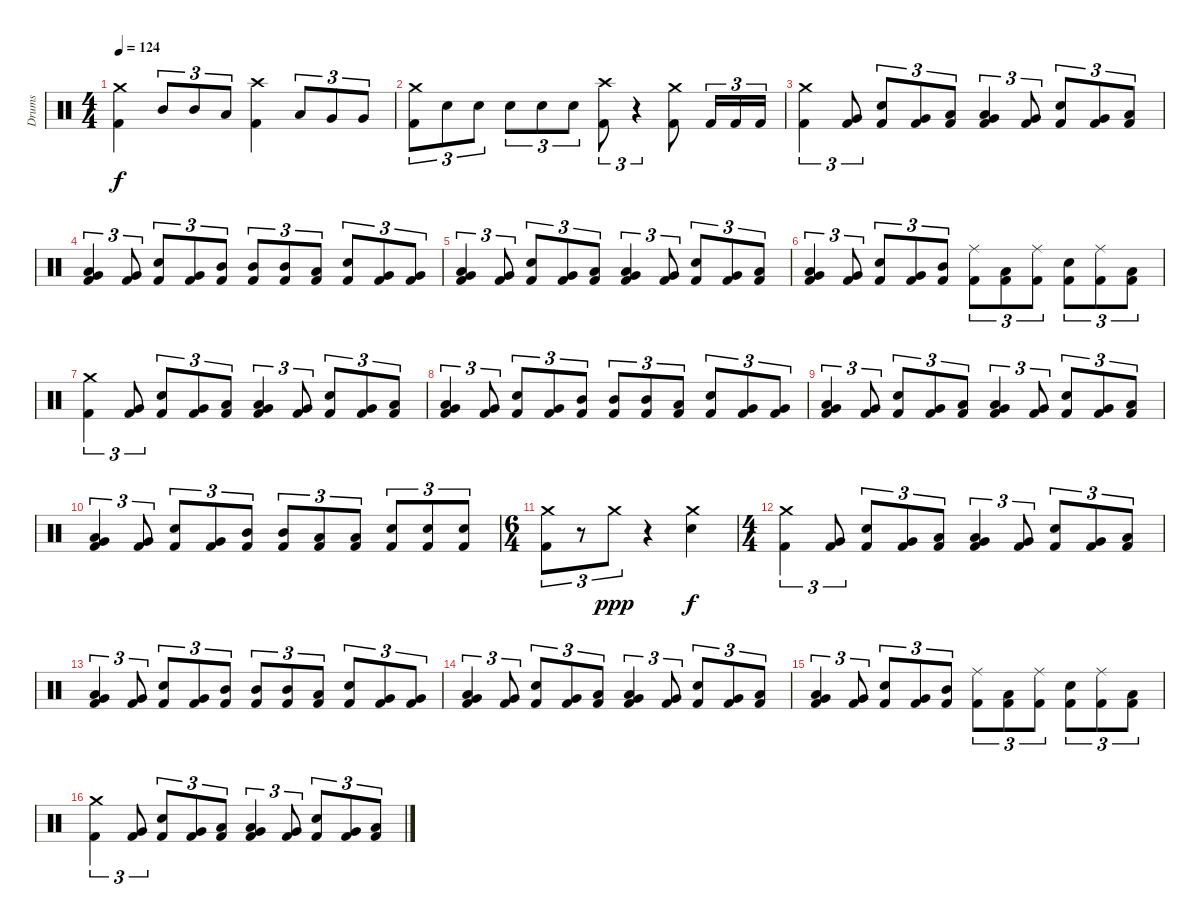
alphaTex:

\track ("Drums" "Drums") {instrument percussion}
\staff {score}
\articulation defaults
\ts (4 4)
\tempo 124
\clef neutral
\ks c
("Crash medium (hit)" "Kick (hit) 2").4{dy f} "Mid Tom (hit)".8{tu (3 2)} "Mid Tom (hit)".8{tu (3 2)} "Low Tom (hit)".8{tu (3 2)} ("Crash high (hit)" "Kick (hit) 2").4 "Low Tom (hit)".8{tu (3 2)} "Very Low Tom (hit)".8{tu (3 2)} "Very Low Tom (hit)".8{tu (3 2)} |
("Crash medium (hit)" "Kick (hit) 2").8{tu (3 2)} "Snare (hit) 2".8{tu (3 2)} "Snare (hit) 2".8{tu (3 2)} "Snare (hit) 2".8{tu (3 2)} "Snare (hit) 2".8{tu (3 2)} "Snare (hit) 2".8{tu (3 2)} ("Crash high (hit)" "Kick (hit) 2").8{tu (3 2)} r.4{tu (3 2)} ("Crash medium (hit)" "Kick (hit) 2").8 "Kick (hit) 2".16{tu (3 2)} "Kick (hit) 2".16{tu (3 2)} "Kick (hit) 2".16{tu (3 2)} |
("Crash medium (hit)" "Kick (hit) 2").4{tu (3 2)} ("Very Low Tom (hit)" "Kick (hit) 2").8{tu (3 2)} ("Snare (hit) 2" "Kick (hit) 2").8{tu (3 2)} ("Very Low Tom (hit)" "Kick (hit) 2").8{tu (3 2)} ("Low Tom (hit)" "Kick (hit) 2").8{tu (3 2)} ("Low Tom (hit)" "Very Low Tom (hit)" "Kick (hit) 2").4{tu (3 2)} ("Very Low Tom (hit)" "Kick (hit) 2").8{tu (3 2)} ("Snare (hit) 2" "Kick (hit) 2").8{tu (3 2)} ("Very Low Tom (hit)" "Kick (hit) 2").8{tu (3 2)} ("Low Tom (hit)" "Kick (hit) 2").8{tu (3 2)} |
("Low Tom (hit)" "Very Low Tom (hit)" "Kick (hit) 2").4{tu (3 2)} ("Very Low Tom (hit)" "Kick (hit) 2").8{tu (3 2)} ("Snare (hit) 2" "Kick (hit) 2").8{tu (3 2)} ("Very Low Tom (hit)" "Kick (hit) 2").8{tu (3 2)} ("Mid Tom (hit)" "Kick (hit) 2").8{tu (3 2)} ("Mid Tom (hit)" "Kick (hit) 2").8{tu (3 2)} ("Mid Tom (hit)" "Kick (hit) 2").8{tu (3 2)} ("Low Tom (hit)" "Kick (hit) 2").8{tu (3 2)} ("Snare (hit) 2" "Kick (hit) 2").8{tu (3 2)} ("Very Low Tom (hit)" "Kick (hit) 2").8{tu (3 2)} ("Very Low Tom (hit)" "Kick (hit) 2").8{tu (3 2)} |
("Low Tom (hit)" "Very Low Tom (hit)" "Kick (hit) 2").4{tu (3 2)} ("Very Low Tom (hit)" "Kick (hit) 2").8{tu (3 2)} ("Snare (hit) 2" "Kick (hit) 2").8{tu (3 2)} ("Very Low Tom (hit)" "Kick (hit) 2").8{tu (3 2)} ("Low Tom (hit)" "Kick (hit) 2").8{tu (3 2)} ("Low Tom (hit)" "Very Low Tom (hit)" "Kick (hit) 2").4{tu (3 2)} ("Very Low Tom (hit)" "Kick (hit) 2").8{tu (3 2)} ("Snare (hit) 2" "Kick (hit) 2").8{tu (3 2)} ("Very Low Tom (hit)" "Kick (hit) 2").8{tu (3 2)} ("Low Tom (hit)" "Kick (hit) 2").8{tu (3 2)} |
("Low Tom (hit)" "Very Low Tom (hit)" "Kick (hit) 2").4{tu (3 2)} ("Very Low Tom (hit)" "Kick (hit) 2").8{tu (3 2)} ("Snare (hit) 2" "Kick (hit) 2").8{tu (3 2)} ("Very Low Tom (hit)" "Kick (hit) 2").8{tu (3 2)} ("Mid Tom (hit)" "Kick (hit) 2").8{tu (3 2)} ("Ride (middle)" "Kick (hit) 2").8{tu (3 2)} ("Low Tom (hit)" "Kick (hit) 2").8{tu (3 2)} ("Ride (middle)" "Kick (hit) 2").8{tu (3 2)} ("Snare (hit) 2" "Kick (hit) 2").8{tu (3 2)} ("Ride (middle)" "Kick (hit) 2").8{tu (3 2)} ("Low Tom (hit)" "Kick (hit) 2").8{tu (3 2)} |
("Crash medium (hit)" "Kick (hit) 2").4{tu (3 2)} ("Very Low Tom (hit)" "Kick (hit) 2").8{tu (3 2)} ("Snare (hit) 2" "Kick (hit) 2").8{tu (3 2)} ("Very Low Tom (hit)" "Kick (hit) 2").8{tu (3 2)} ("Low Tom (hit)" "Kick (hit) 2").8{tu (3 2)} ("Low Tom (hit)" "Very Low Tom (hit)" "Kick (hit) 2").4{tu (3 2)} ("Very Low Tom (hit)" "Kick (hit) 2").8{tu (3 2)} ("Snare (hit) 2" "Kick (hit) 2").8{tu (3 2)} ("Very Low Tom (hit)" "Kick (hit) 2").8{tu (3 2)} ("Low Tom (hit)" "Kick (hit) 2").8{tu (3 2)} |
("Low Tom (hit)" "Very Low Tom (hit)" "Kick (hit) 2").4{tu (3 2)} ("Very Low Tom (hit)" "Kick (hit) 2").8{tu (3 2)} ("Snare (hit) 2" "Kick (hit) 2").8{tu (3 2)} ("Very Low Tom (hit)" "Kick (hit) 2").8{tu (3 2)} ("Mid Tom (hit)" "Kick (hit) 2").8{tu (3 2)} ("Mid Tom (hit)" "Kick (hit) 2").8{tu (3 2)} ("Mid Tom (hit)" "Kick (hit) 2").8{tu (3 2)} ("Low Tom (hit)" "Kick (hit) 2").8{tu (3 2)} ("Snare (hit) 2" "Kick (hit) 2").8{tu (3 2)} ("Very Low Tom (hit)" "Kick (hit) 2").8{tu (3 2)} ("Very Low Tom (hit)" "Kick (hit) 2").8{tu (3 2)} |
("Low Tom (hit)" "Very Low Tom (hit)" "Kick (hit) 2").4{tu (3 2)} ("Very Low Tom (hit)" "Kick (hit) 2").8{tu (3 2)} ("Snare (hit) 2" "Kick (hit) 2").8{tu (3 2)} ("Very Low Tom (hit)" "Kick (hit) 2").8{tu (3 2)} ("Low Tom (hit)" "Kick (hit) 2").8{tu (3 2)} ("Low Tom (hit)" "Very Low Tom (hit)" "Kick (hit) 2").4{tu (3 2)} ("Very Low Tom (hit)" "Kick (hit) 2").8{tu (3 2)} ("Snare (hit) 2" "Kick (hit) 2").8{tu (3 2)} ("Very Low Tom (hit)" "Kick (hit) 2").8{tu (3 2)} ("Low Tom (hit)" "Kick (hit) 2").8{tu (3 2)} |
("Low Tom (hit)" "Very Low Tom (hit)" "Kick (hit) 2").4{tu (3 2)} ("Very Low Tom (hit)" "Kick (hit) 2").8{tu (3 2)} ("Snare (hit) 2" "Kick (hit) 2").8{tu (3 2)} ("Very Low Tom (hit)" "Kick (hit) 2").8{tu (3 2)} ("Mid Tom (hit)" "Kick (hit) 2").8{tu (3 2)} ("Mid Tom (hit)" "Kick (hit) 2").8{tu (3 2)} ("Low Tom (hit)" "Kick (hit) 2").8{tu (3 2)} ("Low Tom (hit)" "Kick (hit) 2").8{tu (3 2)} ("Snare (hit) 2" "Kick (hit) 2").8{tu (3 2)} ("Snare (hit) 2" "Kick (hit) 2").8{tu (3 2)} ("Snare (hit) 2" "Kick (hit) 2").8{tu (3 2)} |
\ts (6 4)
("Crash medium (hit)" "Kick (hit) 2").8{tu (3 2)} r.8{tu (3 2)} "Crash medium (hit)".8{tu (3 2) dy ppp} r.4 ("Crash medium (hit)" "Snare (hit) 2").4{dy f} |
\ts (4 4)
("Crash medium (hit)" "Kick (hit) 2").4{tu (3 2)} ("Very Low Tom (hit)" "Kick (hit) 2").8{tu (3 2)} ("Snare (hit) 2" "Kick (hit) 2").8{tu (3 2)} ("Very Low Tom (hit)" "Kick (hit) 2").8{tu (3 2)} ("Low Tom (hit)" "Kick (hit) 2").8{tu (3 2)} ("Low Tom (hit)" "Very Low Tom (hit)" "Kick (hit) 2").4{tu (3 2)} ("Very Low Tom (hit)" "Kick (hit) 2").8{tu (3 2)} ("Snare (hit) 2" "Kick (hit) 2").8{tu (3 2)} ("Very Low Tom (hit)" "Kick (hit) 2").8{tu (3 2)} ("Low Tom (hit)" "Kick (hit) 2").8{tu (3 2)} |
("Low Tom (hit)" "Very Low Tom (hit)" "Kick (hit) 2").4{tu (3 2)} ("Very Low Tom (hit)" "Kick (hit) 2").8{tu (3 2)} ("Snare (hit) 2" "Kick (hit) 2").8{tu (3 2)} ("Very Low Tom (hit)" "Kick (hit) 2").8{tu (3 2)} ("Mid Tom (hit)" "Kick (hit) 2").8{tu (3 2)} ("Mid Tom (hit)" "Kick (hit) 2").8{tu (3 2)} ("Mid Tom (hit)" "Kick (hit) 2").8{tu (3 2)} ("Low Tom (hit)" "Kick (hit) 2").8{tu (3 2)} ("Snare (hit) 2" "Kick (hit) 2").8{tu (3 2)} ("Very Low Tom (hit)" "Kick (hit) 2").8{tu (3 2)} ("Very Low Tom (hit)" "Kick (hit) 2").8{tu (3 2)} |
("Low Tom (hit)" "Very Low Tom (hit)" "Kick (hit) 2").4{tu (3 2)} ("Very Low Tom (hit)" "Kick (hit) 2").8{tu (3 2)} ("Snare (hit) 2" "Kick (hit) 2").8{tu (3 2)} ("Very Low Tom (hit)" "Kick (hit) 2").8{tu (3 2)} ("Low Tom (hit)" "Kick (hit) 2").8{tu (3 2)} ("Low Tom (hit)" "Very Low Tom (hit)" "Kick (hit) 2").4{tu (3 2)} ("Very Low Tom (hit)" "Kick (hit) 2").8{tu (3 2)} ("Snare (hit) 2" "Kick (hit) 2").8{tu (3 2)} ("Very Low Tom (hit)" "Kick (hit) 2").8{tu (3 2)} ("Low Tom (hit)" "Kick (hit) 2").8{tu (3 2)} |
("Low Tom (hit)" "Very Low Tom (hit)" "Kick (hit) 2").4{tu (3 2)} ("Very Low Tom (hit)" "Kick (hit) 2").8{tu (3 2)} ("Snare (hit) 2" "Kick (hit) 2").8{tu (3 2)} ("Very Low Tom (hit)" "Kick (hit) 2").8{tu (3 2)} ("Mid Tom (hit)" "Kick (hit) 2").8{tu (3 2)} ("Ride (middle)" "Kick (hit) 2").8{tu (3 2)} ("Low Tom (hit)" "Kick (hit) 2").8{tu (3 2)} ("Ride (middle)" "Kick (hit) 2").8{tu (3 2)} ("Snare (hit) 2" "Kick (hit) 2").8{tu (3 2)} ("Ride (middle)" "Kick (hit) 2").8{tu (3 2)} ("Low Tom (hit)" "Kick (hit) 2").8{tu (3 2)} |
("Crash medium (hit)" "Kick (hit) 2").4{tu (3 2)} ("Very Low Tom (hit)" "Kick (hit) 2").8{tu (3 2)} ("Snare (hit) 2" "Kick (hit) 2").8{tu (3 2)} ("Very Low Tom (hit)" "Kick (hit) 2").8{tu (3 2)} ("Low Tom (hit)" "Kick (hit) 2").8{tu (3 2)} ("Low Tom (hit)" "Very Low Tom (hit)" "Kick (hit) 2").4{tu (3 2)} ("Very Low Tom (hit)" "Kick (hit) 2").8{tu (3 2)} ("Snare (hit) 2" "Kick (hit) 2").8{tu (3 2)} ("Very Low Tom (hit)" "Kick (hit) 2").8{tu (3 2)} ("Low Tom (hit)" "Kick (hit) 2").8{tu (3 2)}
